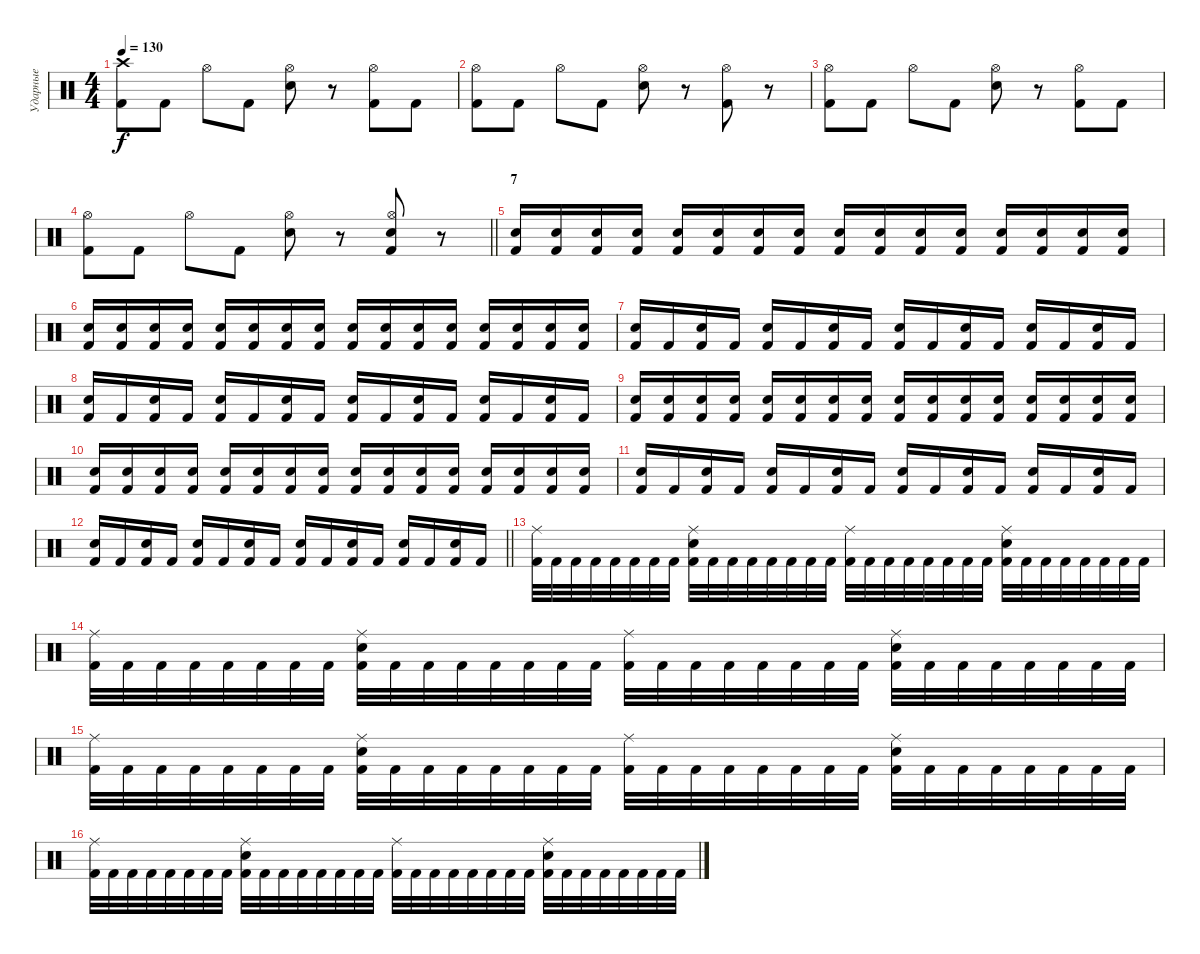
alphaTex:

\track ("Ударные" "Ударные") {instrument percussion}
\staff {score}
\articulation defaults
\ts (4 4)
\tempo 130
\clef neutral
\ks c
("Kick (hit) 2" "Crash high (hit)").8{dy f} "Kick (hit) 2".8 "Hi-Hat (open)".8 "Kick (hit) 2".8 ("Electric Snare (hit)" "Hi-Hat (open)").8 r.8 ("Kick (hit) 2" "Hi-Hat (open)").8 "Kick (hit) 2".8 |
("Kick (hit) 2" "Hi-Hat (open)").8 "Kick (hit) 2".8 "Hi-Hat (open)".8 "Kick (hit) 2".8 ("Electric Snare (hit)" "Hi-Hat (open)").8 r.8 ("Kick (hit) 2" "Hi-Hat (open)").8 r.8 |
("Kick (hit) 2" "Hi-Hat (open)").8 "Kick (hit) 2".8 "Hi-Hat (open)".8 "Kick (hit) 2".8 ("Electric Snare (hit)" "Hi-Hat (open)").8 r.8 ("Kick (hit) 2" "Hi-Hat (open)").8 "Kick (hit) 2".8 |
\barLineRight lightlight
("Kick (hit) 2" "Hi-Hat (open)").8 "Kick (hit) 2".8 "Hi-Hat (open)".8 "Kick (hit) 2".8 ("Electric Snare (hit)" "Hi-Hat (open)").8 r.8 ("Kick (hit) 2" "Electric Snare (hit)" "Hi-Hat (open)").8 r.8 |
\section ("" "7")
("Kick (hit) 2" "Electric Snare (hit)").16 ("Kick (hit) 2" "Electric Snare (hit)").16 ("Kick (hit) 2" "Electric Snare (hit)").16 ("Kick (hit) 2" "Electric Snare (hit)").16 ("Kick (hit) 2" "Electric Snare (hit)").16 ("Kick (hit) 2" "Electric Snare (hit)").16 ("Kick (hit) 2" "Electric Snare (hit)").16 ("Kick (hit) 2" "Electric Snare (hit)").16 ("Kick (hit) 2" "Electric Snare (hit)").16 ("Kick (hit) 2" "Electric Snare (hit)").16 ("Kick (hit) 2" "Electric Snare (hit)").16 ("Kick (hit) 2" "Electric Snare (hit)").16 ("Kick (hit) 2" "Electric Snare (hit)").16 ("Kick (hit) 2" "Electric Snare (hit)").16 ("Kick (hit) 2" "Electric Snare (hit)").16 ("Kick (hit) 2" "Electric Snare (hit)").16 |
("Kick (hit) 2" "Electric Snare (hit)").16 ("Kick (hit) 2" "Electric Snare (hit)").16 ("Kick (hit) 2" "Electric Snare (hit)").16 ("Kick (hit) 2" "Electric Snare (hit)").16 ("Kick (hit) 2" "Electric Snare (hit)").16 ("Kick (hit) 2" "Electric Snare (hit)").16 ("Kick (hit) 2" "Electric Snare (hit)").16 ("Kick (hit) 2" "Electric Snare (hit)").16 ("Kick (hit) 2" "Electric Snare (hit)").16 ("Kick (hit) 2" "Electric Snare (hit)").16 ("Kick (hit) 2" "Electric Snare (hit)").16 ("Kick (hit) 2" "Electric Snare (hit)").16 ("Kick (hit) 2" "Electric Snare (hit)").16 ("Kick (hit) 2" "Electric Snare (hit)").16 ("Kick (hit) 2" "Electric Snare (hit)").16 ("Kick (hit) 2" "Electric Snare (hit)").16 |
("Kick (hit) 2" "Electric Snare (hit)").16 "Kick (hit) 2".16 ("Kick (hit) 2" "Electric Snare (hit)").16 "Kick (hit) 2".16 ("Kick (hit) 2" "Electric Snare (hit)").16 "Kick (hit) 2".16 ("Kick (hit) 2" "Electric Snare (hit)").16 "Kick (hit) 2".16 ("Kick (hit) 2" "Electric Snare (hit)").16 "Kick (hit) 2".16 ("Kick (hit) 2" "Electric Snare (hit)").16 "Kick (hit) 2".16 ("Kick (hit) 2" "Electric Snare (hit)").16 "Kick (hit) 2".16 ("Kick (hit) 2" "Electric Snare (hit)").16 "Kick (hit) 2".16 |
("Kick (hit) 2" "Electric Snare (hit)").16 "Kick (hit) 2".16 ("Kick (hit) 2" "Electric Snare (hit)").16 "Kick (hit) 2".16 ("Kick (hit) 2" "Electric Snare (hit)").16 "Kick (hit) 2".16 ("Kick (hit) 2" "Electric Snare (hit)").16 "Kick (hit) 2".16 ("Kick (hit) 2" "Electric Snare (hit)").16 "Kick (hit) 2".16 ("Kick (hit) 2" "Electric Snare (hit)").16 "Kick (hit) 2".16 ("Kick (hit) 2" "Electric Snare (hit)").16 "Kick (hit) 2".16 ("Kick (hit) 2" "Electric Snare (hit)").16 "Kick (hit) 2".16 |
("Kick (hit) 2" "Electric Snare (hit)").16 ("Kick (hit) 2" "Electric Snare (hit)").16 ("Kick (hit) 2" "Electric Snare (hit)").16 ("Kick (hit) 2" "Electric Snare (hit)").16 ("Kick (hit) 2" "Electric Snare (hit)").16 ("Kick (hit) 2" "Electric Snare (hit)").16 ("Kick (hit) 2" "Electric Snare (hit)").16 ("Kick (hit) 2" "Electric Snare (hit)").16 ("Kick (hit) 2" "Electric Snare (hit)").16 ("Kick (hit) 2" "Electric Snare (hit)").16 ("Kick (hit) 2" "Electric Snare (hit)").16 ("Kick (hit) 2" "Electric Snare (hit)").16 ("Kick (hit) 2" "Electric Snare (hit)").16 ("Kick (hit) 2" "Electric Snare (hit)").16 ("Kick (hit) 2" "Electric Snare (hit)").16 ("Kick (hit) 2" "Electric Snare (hit)").16 |
("Kick (hit) 2" "Electric Snare (hit)").16 ("Kick (hit) 2" "Electric Snare (hit)").16 ("Kick (hit) 2" "Electric Snare (hit)").16 ("Kick (hit) 2" "Electric Snare (hit)").16 ("Kick (hit) 2" "Electric Snare (hit)").16 ("Kick (hit) 2" "Electric Snare (hit)").16 ("Kick (hit) 2" "Electric Snare (hit)").16 ("Kick (hit) 2" "Electric Snare (hit)").16 ("Kick (hit) 2" "Electric Snare (hit)").16 ("Kick (hit) 2" "Electric Snare (hit)").16 ("Kick (hit) 2" "Electric Snare (hit)").16 ("Kick (hit) 2" "Electric Snare (hit)").16 ("Kick (hit) 2" "Electric Snare (hit)").16 ("Kick (hit) 2" "Electric Snare (hit)").16 ("Kick (hit) 2" "Electric Snare (hit)").16 ("Kick (hit) 2" "Electric Snare (hit)").16 |
("Kick (hit) 2" "Electric Snare (hit)").16 "Kick (hit) 2".16 ("Kick (hit) 2" "Electric Snare (hit)").16 "Kick (hit) 2".16 ("Kick (hit) 2" "Electric Snare (hit)").16 "Kick (hit) 2".16 ("Kick (hit) 2" "Electric Snare (hit)").16 "Kick (hit) 2".16 ("Kick (hit) 2" "Electric Snare (hit)").16 "Kick (hit) 2".16 ("Kick (hit) 2" "Electric Snare (hit)").16 "Kick (hit) 2".16 ("Kick (hit) 2" "Electric Snare (hit)").16 "Kick (hit) 2".16 ("Kick (hit) 2" "Electric Snare (hit)").16 "Kick (hit) 2".16 |
\barLineRight lightlight
("Kick (hit) 2" "Electric Snare (hit)").16 "Kick (hit) 2".16 ("Kick (hit) 2" "Electric Snare (hit)").16 "Kick (hit) 2".16 ("Kick (hit) 2" "Electric Snare (hit)").16 "Kick (hit) 2".16 ("Kick (hit) 2" "Electric Snare (hit)").16 "Kick (hit) 2".16 ("Kick (hit) 2" "Electric Snare (hit)").16 "Kick (hit) 2".16 ("Kick (hit) 2" "Electric Snare (hit)").16 "Kick (hit) 2".16 ("Kick (hit) 2" "Electric Snare (hit)").16 "Kick (hit) 2".16 ("Kick (hit) 2" "Electric Snare (hit)").16 "Kick (hit) 2".16 |
("Kick (hit) 2" "Ride (middle)").32 "Kick (hit) 2".32 "Kick (hit) 2".32 "Kick (hit) 2".32 "Kick (hit) 2".32 "Kick (hit) 2".32 "Kick (hit) 2".32 "Kick (hit) 2".32 ("Kick (hit) 2" "Electric Snare (hit)" "Ride (middle)").32 "Kick (hit) 2".32 "Kick (hit) 2".32 "Kick (hit) 2".32 "Kick (hit) 2".32 "Kick (hit) 2".32 "Kick (hit) 2".32 "Kick (hit) 2".32 ("Kick (hit) 2" "Ride (middle)").32 "Kick (hit) 2".32 "Kick (hit) 2".32 "Kick (hit) 2".32 "Kick (hit) 2".32 "Kick (hit) 2".32 "Kick (hit) 2".32 "Kick (hit) 2".32 ("Kick (hit) 2" "Electric Snare (hit)" "Ride (middle)").32 "Kick (hit) 2".32 "Kick (hit) 2".32 "Kick (hit) 2".32 "Kick (hit) 2".32 "Kick (hit) 2".32 "Kick (hit) 2".32 "Kick (hit) 2".32 |
("Kick (hit) 2" "Ride (middle)").32 "Kick (hit) 2".32 "Kick (hit) 2".32 "Kick (hit) 2".32 "Kick (hit) 2".32 "Kick (hit) 2".32 "Kick (hit) 2".32 "Kick (hit) 2".32 ("Kick (hit) 2" "Electric Snare (hit)" "Ride (middle)").32 "Kick (hit) 2".32 "Kick (hit) 2".32 "Kick (hit) 2".32 "Kick (hit) 2".32 "Kick (hit) 2".32 "Kick (hit) 2".32 "Kick (hit) 2".32 ("Kick (hit) 2" "Ride (middle)").32 "Kick (hit) 2".32 "Kick (hit) 2".32 "Kick (hit) 2".32 "Kick (hit) 2".32 "Kick (hit) 2".32 "Kick (hit) 2".32 "Kick (hit) 2".32 ("Kick (hit) 2" "Electric Snare (hit)" "Ride (middle)").32 "Kick (hit) 2".32 "Kick (hit) 2".32 "Kick (hit) 2".32 "Kick (hit) 2".32 "Kick (hit) 2".32 "Kick (hit) 2".32 "Kick (hit) 2".32 |
("Kick (hit) 2" "Ride (middle)").32 "Kick (hit) 2".32 "Kick (hit) 2".32 "Kick (hit) 2".32 "Kick (hit) 2".32 "Kick (hit) 2".32 "Kick (hit) 2".32 "Kick (hit) 2".32 ("Kick (hit) 2" "Electric Snare (hit)" "Ride (middle)").32 "Kick (hit) 2".32 "Kick (hit) 2".32 "Kick (hit) 2".32 "Kick (hit) 2".32 "Kick (hit) 2".32 "Kick (hit) 2".32 "Kick (hit) 2".32 ("Kick (hit) 2" "Ride (middle)").32 "Kick (hit) 2".32 "Kick (hit) 2".32 "Kick (hit) 2".32 "Kick (hit) 2".32 "Kick (hit) 2".32 "Kick (hit) 2".32 "Kick (hit) 2".32 ("Kick (hit) 2" "Electric Snare (hit)" "Ride (middle)").32 "Kick (hit) 2".32 "Kick (hit) 2".32 "Kick (hit) 2".32 "Kick (hit) 2".32 "Kick (hit) 2".32 "Kick (hit) 2".32 "Kick (hit) 2".32 |
("Kick (hit) 2" "Ride (middle)").32 "Kick (hit) 2".32 "Kick (hit) 2".32 "Kick (hit) 2".32 "Kick (hit) 2".32 "Kick (hit) 2".32 "Kick (hit) 2".32 "Kick (hit) 2".32 ("Kick (hit) 2" "Electric Snare (hit)" "Ride (middle)").32 "Kick (hit) 2".32 "Kick (hit) 2".32 "Kick (hit) 2".32 "Kick (hit) 2".32 "Kick (hit) 2".32 "Kick (hit) 2".32 "Kick (hit) 2".32 ("Kick (hit) 2" "Ride (middle)").32 "Kick (hit) 2".32 "Kick (hit) 2".32 "Kick (hit) 2".32 "Kick (hit) 2".32 "Kick (hit) 2".32 "Kick (hit) 2".32 "Kick (hit) 2".32 ("Kick (hit) 2" "Electric Snare (hit)" "Ride (middle)").32 "Kick (hit) 2".32 "Kick (hit) 2".32 "Kick (hit) 2".32 "Kick (hit) 2".32 "Kick (hit) 2".32 "Kick (hit) 2".32 "Kick (hit) 2".32
